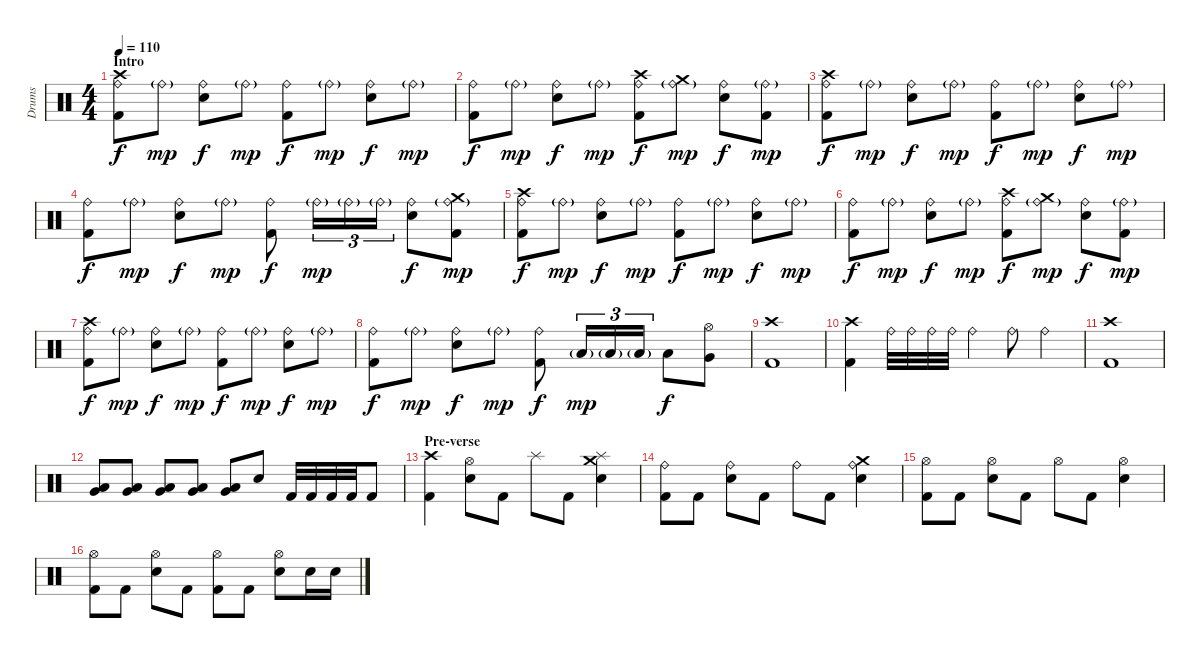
\track ("Drums" "Drums") {instrument percussion}
\staff {score}
\articulation defaults
\ts (4 4)
\section ("" "Intro")
\tempo 110
\clef neutral
\ks c
("Ride (bell)" "Kick (hit) 2" "Crash high (hit)").8{dy f} "Ride (bell)"{g}.8{dy mp} ("Ride (bell)" "Electric Snare (hit)").8{dy f} "Ride (bell)"{g}.8{dy mp} ("Ride (bell)" "Kick (hit) 2").8{dy f} "Ride (bell)"{g}.8{dy mp} ("Ride (bell)" "Electric Snare (hit)").8{dy f} "Ride (bell)"{g}.8{dy mp} |
("Ride (bell)" "Kick (hit) 2").8{dy f} "Ride (bell)"{g}.8{dy mp} ("Ride (bell)" "Electric Snare (hit)").8{dy f} "Ride (bell)"{g}.8{dy mp} ("Ride (bell)" "Kick (hit) 2" "Crash high (hit)").8{dy f} ("Ride (bell)"{g} "Crash medium (hit)").8{dy mp} ("Ride (bell)" "Electric Snare (hit)").8{dy f} ("Ride (bell)"{g} "Kick (hit) 2").8{dy mp} |
("Ride (bell)" "Kick (hit) 2" "Crash high (hit)").8{dy f} "Ride (bell)"{g}.8{dy mp} ("Ride (bell)" "Electric Snare (hit)").8{dy f} "Ride (bell)"{g}.8{dy mp} ("Ride (bell)" "Kick (hit) 2").8{dy f} "Ride (bell)"{g}.8{dy mp} ("Ride (bell)" "Electric Snare (hit)").8{dy f} "Ride (bell)"{g}.8{dy mp} |
("Ride (bell)" "Kick (hit) 2").8{dy f} "Ride (bell)"{g}.8{dy mp} ("Ride (bell)" "Electric Snare (hit)").8{dy f} "Ride (bell)"{g}.8{dy mp} ("Ride (bell)" "Kick (hit) 2").8{dy f} "Ride (bell)"{g}.16{tu (3 2) dy mp} "Ride (bell)"{g}.16{tu (3 2)} "Ride (bell)"{g}.16{tu (3 2)} ("Ride (bell)" "Electric Snare (hit)").8{dy f} ("Ride (bell)"{g} "Kick (hit) 2" "Crash medium (hit)").8{dy mp} |
("Ride (bell)" "Kick (hit) 2" "Crash high (hit)").8{dy f} "Ride (bell)"{g}.8{dy mp} ("Ride (bell)" "Electric Snare (hit)").8{dy f} "Ride (bell)"{g}.8{dy mp} ("Ride (bell)" "Kick (hit) 2").8{dy f} "Ride (bell)"{g}.8{dy mp} ("Ride (bell)" "Electric Snare (hit)").8{dy f} "Ride (bell)"{g}.8{dy mp} |
("Ride (bell)" "Kick (hit) 2").8{dy f} "Ride (bell)"{g}.8{dy mp} ("Ride (bell)" "Electric Snare (hit)").8{dy f} "Ride (bell)"{g}.8{dy mp} ("Ride (bell)" "Kick (hit) 2" "Crash high (hit)").8{dy f} ("Ride (bell)"{g} "Crash medium (hit)").8{dy mp} ("Ride (bell)" "Electric Snare (hit)").8{dy f} ("Ride (bell)"{g} "Kick (hit) 2").8{dy mp} |
("Ride (bell)" "Kick (hit) 2" "Crash high (hit)").8{dy f} "Ride (bell)"{g}.8{dy mp} ("Ride (bell)" "Electric Snare (hit)").8{dy f} "Ride (bell)"{g}.8{dy mp} ("Ride (bell)" "Kick (hit) 2").8{dy f} "Ride (bell)"{g}.8{dy mp} ("Ride (bell)" "Electric Snare (hit)").8{dy f} "Ride (bell)"{g}.8{dy mp} |
("Ride (bell)" "Kick (hit) 2").8{dy f} "Ride (bell)"{g}.8{dy mp} ("Ride (bell)" "Electric Snare (hit)").8{dy f} "Ride (bell)"{g}.8{dy mp} ("Ride (bell)" "Kick (hit) 2").8{dy f} "Low Tom (hit)"{g}.16{tu (3 2) dy mp} "Low Tom (hit)"{g}.16{tu (3 2)} "Low Tom (hit)"{g}.16{tu (3 2)} "Low Tom (hit)".8{dy f} ("Very Low Tom (hit)" "Hi-Hat (open)").8 |
("Kick (hit) 2" "Crash high (hit)").1 |
("Kick (hit) 2" "Crash high (hit)").4 "Ride (bell)".32 "Ride (bell)".32 "Ride (bell)".32 "Ride (bell)".32 "Ride (bell)".4 "Ride (bell)".8 "Ride (bell)".4 |
("Kick (hit) 2" "Crash high (hit)").1 |
("Low Tom (hit)" "Very Low Tom (hit)").8 ("Low Tom (hit)" "Very Low Tom (hit)").8 ("Low Tom (hit)" "Very Low Tom (hit)").8 ("Low Tom (hit)" "Very Low Tom (hit)").8 ("Low Tom (hit)" "Very Low Tom (hit)").8 "Electric Snare (hit)".8 "Kick (hit) 2".32 "Kick (hit) 2".32 "Kick (hit) 2".32 "Kick (hit) 2".32 "Kick (hit) 2".8 |
\section ("" "Pre-verse")
("Crash high (hit)" "Kick (hit) 2").4 ("Electric Snare (hit)" "Hi-Hat (open)").8 "Kick (hit) 2".8 "Splash (hit)".8 "Kick (hit) 2".8 ("Splash (hit)" "Electric Snare (hit)" "Crash medium (hit)").4 |
("Ride (bell)" "Kick (hit) 2").8 "Kick (hit) 2".8 ("Ride (bell)" "Electric Snare (hit)").8 "Kick (hit) 2".8 "Ride (bell)".8 "Kick (hit) 2".8 ("Ride (bell)" "Electric Snare (hit)" "Crash medium (hit)").4 |
("Hi-Hat (open)" "Kick (hit) 2").8 "Kick (hit) 2".8 ("Hi-Hat (open)" "Electric Snare (hit)").8 "Kick (hit) 2".8 "Hi-Hat (open)".8 "Kick (hit) 2".8 ("Hi-Hat (open)" "Electric Snare (hit)").4 |
("Hi-Hat (open)" "Kick (hit) 2").8 "Kick (hit) 2".8 ("Hi-Hat (open)" "Electric Snare (hit)").8 "Kick (hit) 2".8 ("Hi-Hat (open)" "Kick (hit) 2").8 "Kick (hit) 2".8 ("Hi-Hat (open)" "Electric Snare (hit)").8 "Electric Snare (hit)".16 "Electric Snare (hit)".16
